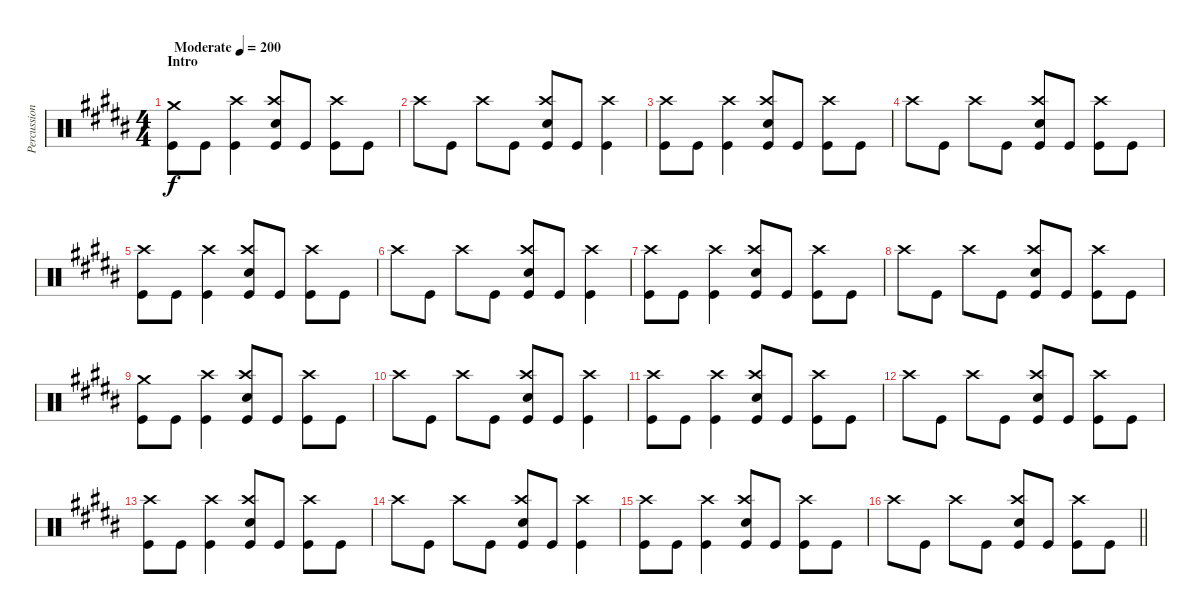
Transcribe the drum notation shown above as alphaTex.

\track ("Percussion" "Percussion") {instrument percussion}
\staff {score}
\articulation defaults
\ts (4 4)
\section ("" "Intro")
\tempo (200 "Moderate")
\clef neutral
\ks b
("Crash medium (hit)" "Kick (hit)").8{dy f} "Kick (hit)".8 ("Crash high (hit)" "Kick (hit)").4 ("Crash high (hit)" "Electric Snare (hit)" "Kick (hit)").8 "Kick (hit)".8 ("Crash high (hit)" "Kick (hit)").8 "Kick (hit)".8 |
"Crash high (hit)".8 "Kick (hit)".8 "Crash high (hit)".8 "Kick (hit)".8 ("Crash high (hit)" "Electric Snare (hit)" "Kick (hit)").8 "Kick (hit)".8 ("Crash high (hit)" "Kick (hit)").4 |
("Crash high (hit)" "Kick (hit)").8 "Kick (hit)".8 ("Crash high (hit)" "Kick (hit)").4 ("Crash high (hit)" "Electric Snare (hit)" "Kick (hit)").8 "Kick (hit)".8 ("Crash high (hit)" "Kick (hit)").8 "Kick (hit)".8 |
"Crash high (hit)".8 "Kick (hit)".8 "Crash high (hit)".8 "Kick (hit)".8 ("Crash high (hit)" "Electric Snare (hit)" "Kick (hit)").8 "Kick (hit)".8 ("Crash high (hit)" "Kick (hit)").8 "Kick (hit)".8 |
("Crash high (hit)" "Kick (hit)").8 "Kick (hit)".8 ("Crash high (hit)" "Kick (hit)").4 ("Crash high (hit)" "Electric Snare (hit)" "Kick (hit)").8 "Kick (hit)".8 ("Crash high (hit)" "Kick (hit)").8 "Kick (hit)".8 |
"Crash high (hit)".8 "Kick (hit)".8 "Crash high (hit)".8 "Kick (hit)".8 ("Crash high (hit)" "Electric Snare (hit)" "Kick (hit)").8 "Kick (hit)".8 ("Crash high (hit)" "Kick (hit)").4 |
("Crash high (hit)" "Kick (hit)").8 "Kick (hit)".8 ("Crash high (hit)" "Kick (hit)").4 ("Crash high (hit)" "Electric Snare (hit)" "Kick (hit)").8 "Kick (hit)".8 ("Crash high (hit)" "Kick (hit)").8 "Kick (hit)".8 |
"Crash high (hit)".8 "Kick (hit)".8 "Crash high (hit)".8 "Kick (hit)".8 ("Crash high (hit)" "Electric Snare (hit)" "Kick (hit)").8 "Kick (hit)".8 ("Crash high (hit)" "Kick (hit)").8 "Kick (hit)".8 |
("Crash medium (hit)" "Kick (hit)").8 "Kick (hit)".8 ("Crash high (hit)" "Kick (hit)").4 ("Crash high (hit)" "Electric Snare (hit)" "Kick (hit)").8 "Kick (hit)".8 ("Crash high (hit)" "Kick (hit)").8 "Kick (hit)".8 |
"Crash high (hit)".8 "Kick (hit)".8 "Crash high (hit)".8 "Kick (hit)".8 ("Crash high (hit)" "Electric Snare (hit)" "Kick (hit)").8 "Kick (hit)".8 ("Crash high (hit)" "Kick (hit)").4 |
("Crash high (hit)" "Kick (hit)").8 "Kick (hit)".8 ("Crash high (hit)" "Kick (hit)").4 ("Crash high (hit)" "Electric Snare (hit)" "Kick (hit)").8 "Kick (hit)".8 ("Crash high (hit)" "Kick (hit)").8 "Kick (hit)".8 |
"Crash high (hit)".8 "Kick (hit)".8 "Crash high (hit)".8 "Kick (hit)".8 ("Crash high (hit)" "Electric Snare (hit)" "Kick (hit)").8 "Kick (hit)".8 ("Crash high (hit)" "Kick (hit)").8 "Kick (hit)".8 |
("Crash high (hit)" "Kick (hit)").8 "Kick (hit)".8 ("Crash high (hit)" "Kick (hit)").4 ("Crash high (hit)" "Electric Snare (hit)" "Kick (hit)").8 "Kick (hit)".8 ("Crash high (hit)" "Kick (hit)").8 "Kick (hit)".8 |
"Crash high (hit)".8 "Kick (hit)".8 "Crash high (hit)".8 "Kick (hit)".8 ("Crash high (hit)" "Electric Snare (hit)" "Kick (hit)").8 "Kick (hit)".8 ("Crash high (hit)" "Kick (hit)").4 |
("Crash high (hit)" "Kick (hit)").8 "Kick (hit)".8 ("Crash high (hit)" "Kick (hit)").4 ("Crash high (hit)" "Electric Snare (hit)" "Kick (hit)").8 "Kick (hit)".8 ("Crash high (hit)" "Kick (hit)").8 "Kick (hit)".8 |
\barLineRight lightlight "Crash high (hit)".8 "Kick (hit)".8 "Crash high (hit)".8 "Kick (hit)".8
("Crash high (hit)" "Electric Snare (hit)" "Kick (hit)").8 "Kick (hit)".8 ("Crash high (hit)" "Kick (hit)").8 "Kick (hit)".8
